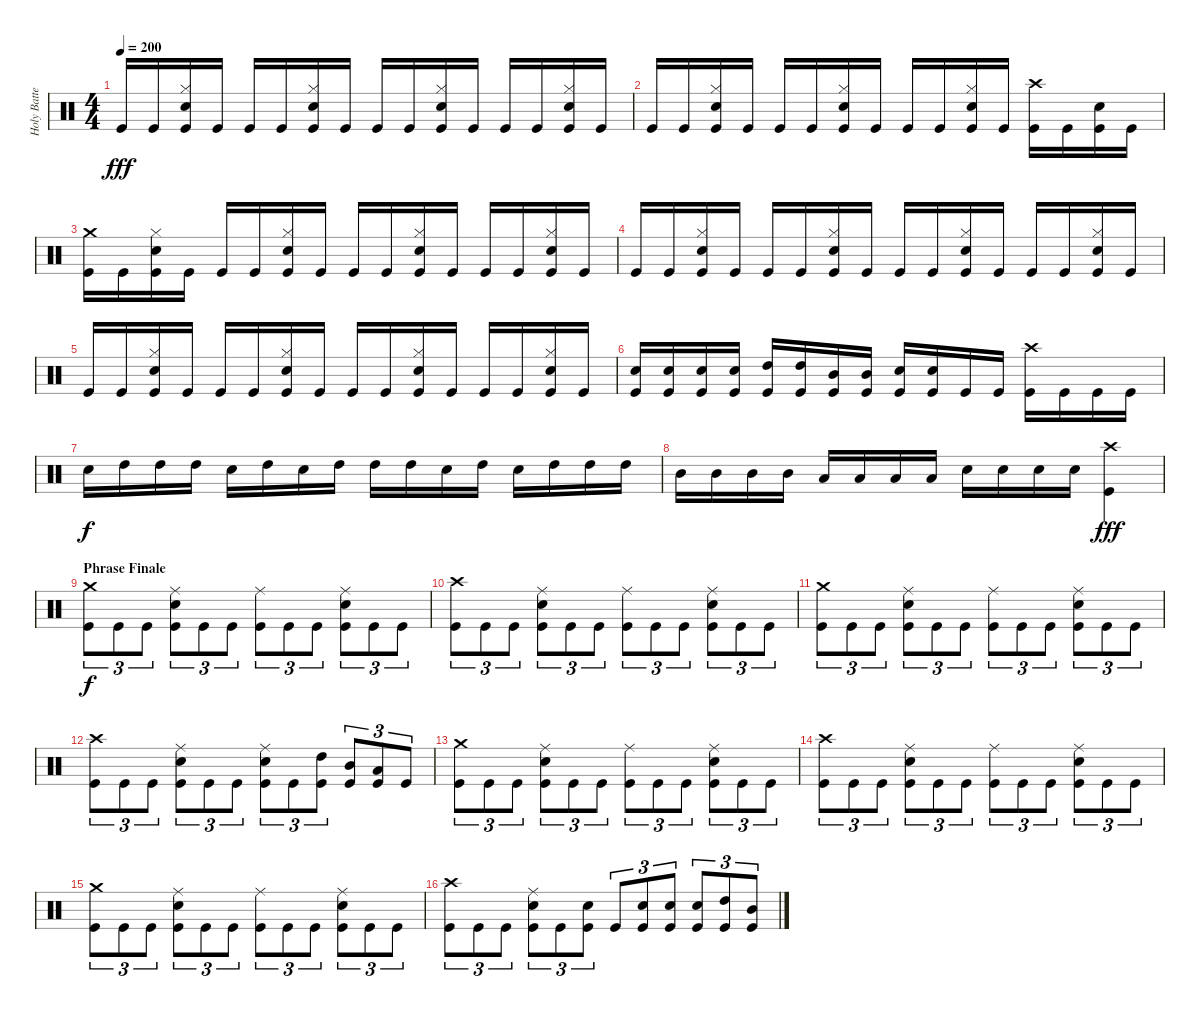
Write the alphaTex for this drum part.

\track ("Holy Batteur" "Holy Batte") {instrument percussion}
\staff {score}
\articulation defaults
\ts (4 4)
\tempo 200
\clef neutral
\ks c "Kick (hit)".16{dy fff} "Kick (hit)".16
("Hi-Hat (closed)" "Electric Snare (hit)" "Kick (hit)").16 "Kick (hit)".16 "Kick (hit)".16 "Kick (hit)".16 ("Hi-Hat (closed)" "Electric Snare (hit)" "Kick (hit)").16 "Kick (hit)".16 "Kick (hit)".16 "Kick (hit)".16 ("Hi-Hat (closed)" "Electric Snare (hit)" "Kick (hit)").16 "Kick (hit)".16 "Kick (hit)".16 "Kick (hit)".16 ("Hi-Hat (closed)" "Electric Snare (hit)" "Kick (hit)").16 "Kick (hit)".16 |
"Kick (hit)".16 "Kick (hit)".16 ("Hi-Hat (closed)" "Electric Snare (hit)" "Kick (hit)").16 "Kick (hit)".16 "Kick (hit)".16 "Kick (hit)".16 ("Hi-Hat (closed)" "Electric Snare (hit)" "Kick (hit)").16 "Kick (hit)".16 "Kick (hit)".16 "Kick (hit)".16 ("Hi-Hat (closed)" "Electric Snare (hit)" "Kick (hit)").16 "Kick (hit)".16 ("Crash high (hit)" "Kick (hit)").16 "Kick (hit)".16 ("Electric Snare (hit)" "Kick (hit)").16 "Kick (hit)".16 |
("Crash medium (hit)" "Kick (hit)").16 "Kick (hit)".16 ("Hi-Hat (closed)" "Electric Snare (hit)" "Kick (hit)").16 "Kick (hit)".16 "Kick (hit)".16 "Kick (hit)".16 ("Hi-Hat (closed)" "Electric Snare (hit)" "Kick (hit)").16 "Kick (hit)".16 "Kick (hit)".16 "Kick (hit)".16 ("Hi-Hat (closed)" "Electric Snare (hit)" "Kick (hit)").16 "Kick (hit)".16 "Kick (hit)".16 "Kick (hit)".16 ("Hi-Hat (closed)" "Electric Snare (hit)" "Kick (hit)").16 "Kick (hit)".16 |
"Kick (hit)".16 "Kick (hit)".16 ("Hi-Hat (closed)" "Electric Snare (hit)" "Kick (hit)").16 "Kick (hit)".16 "Kick (hit)".16 "Kick (hit)".16 ("Hi-Hat (closed)" "Electric Snare (hit)" "Kick (hit)").16 "Kick (hit)".16 "Kick (hit)".16 "Kick (hit)".16 ("Hi-Hat (closed)" "Electric Snare (hit)" "Kick (hit)").16 "Kick (hit)".16 "Kick (hit)".16 "Kick (hit)".16 ("Hi-Hat (closed)" "Electric Snare (hit)" "Kick (hit)").16 "Kick (hit)".16 |
"Kick (hit)".16 "Kick (hit)".16 ("Hi-Hat (closed)" "Electric Snare (hit)" "Kick (hit)").16 "Kick (hit)".16 "Kick (hit)".16 "Kick (hit)".16 ("Hi-Hat (closed)" "Electric Snare (hit)" "Kick (hit)").16 "Kick (hit)".16 "Kick (hit)".16 "Kick (hit)".16 ("Hi-Hat (closed)" "Electric Snare (hit)" "Kick (hit)").16 "Kick (hit)".16 "Kick (hit)".16 "Kick (hit)".16 ("Hi-Hat (closed)" "Electric Snare (hit)" "Kick (hit)").16 "Kick (hit)".16 |
("Electric Snare (hit)" "Kick (hit)").16 ("Electric Snare (hit)" "Kick (hit)").16 ("Electric Snare (hit)" "Kick (hit)").16 ("Electric Snare (hit)" "Kick (hit)").16 ("High Tom (hit)" "Kick (hit)").16 ("High Tom (hit)" "Kick (hit)").16 ("Mid Tom (hit)" "Kick (hit)").16 ("Mid Tom (hit)" "Kick (hit)").16 ("Electric Snare (hit)" "Kick (hit)").16 ("Electric Snare (hit)" "Kick (hit)").16 "Kick (hit)".16 "Kick (hit)".16 ("Crash high (hit)" "Kick (hit)").16 "Kick (hit)".16 "Kick (hit)".16 "Kick (hit)".16 |
"Electric Snare (hit)".16{dy f} "High Tom (hit)".16 "High Tom (hit)".16 "High Tom (hit)".16 "Electric Snare (hit)".16 "High Tom (hit)".16 "Electric Snare (hit)".16 "High Tom (hit)".16 "High Tom (hit)".16 "High Tom (hit)".16 "Electric Snare (hit)".16 "High Tom (hit)".16 "Electric Snare (hit)".16 "High Tom (hit)".16 "High Tom (hit)".16 "High Tom (hit)".16 |
"Mid Tom (hit)".16 "Mid Tom (hit)".16 "Mid Tom (hit)".16 "Mid Tom (hit)".16 "Low Tom (hit)".16 "Low Tom (hit)".16 "Low Tom (hit)".16 "Low Tom (hit)".16 "Electric Snare (hit)".16 "Electric Snare (hit)".16 "Electric Snare (hit)".16 "Electric Snare (hit)".16 ("Crash high (hit)" "Kick (hit)").4{dy fff} |
\section ("" "Phrase Finale")
("Crash medium (hit)" "Kick (hit)").8{tu (3 2) dy f} "Kick (hit)".8{tu (3 2)} "Kick (hit)".8{tu (3 2)} ("Ride (middle)" "Electric Snare (hit)" "Kick (hit)").8{tu (3 2)} "Kick (hit)".8{tu (3 2)} "Kick (hit)".8{tu (3 2)} ("Ride (middle)" "Kick (hit)").8{tu (3 2)} "Kick (hit)".8{tu (3 2)} "Kick (hit)".8{tu (3 2)} ("Ride (middle)" "Electric Snare (hit)" "Kick (hit)").8{tu (3 2)} "Kick (hit)".8{tu (3 2)} "Kick (hit)".8{tu (3 2)} |
("Crash high (hit)" "Kick (hit)").8{tu (3 2)} "Kick (hit)".8{tu (3 2)} "Kick (hit)".8{tu (3 2)} ("Ride (middle)" "Electric Snare (hit)" "Kick (hit)").8{tu (3 2)} "Kick (hit)".8{tu (3 2)} "Kick (hit)".8{tu (3 2)} ("Ride (middle)" "Kick (hit)").8{tu (3 2)} "Kick (hit)".8{tu (3 2)} "Kick (hit)".8{tu (3 2)} ("Ride (middle)" "Electric Snare (hit)" "Kick (hit)").8{tu (3 2)} "Kick (hit)".8{tu (3 2)} "Kick (hit)".8{tu (3 2)} |
("Crash medium (hit)" "Kick (hit)").8{tu (3 2)} "Kick (hit)".8{tu (3 2)} "Kick (hit)".8{tu (3 2)} ("Ride (middle)" "Electric Snare (hit)" "Kick (hit)").8{tu (3 2)} "Kick (hit)".8{tu (3 2)} "Kick (hit)".8{tu (3 2)} ("Ride (middle)" "Kick (hit)").8{tu (3 2)} "Kick (hit)".8{tu (3 2)} "Kick (hit)".8{tu (3 2)} ("Ride (middle)" "Electric Snare (hit)" "Kick (hit)").8{tu (3 2)} "Kick (hit)".8{tu (3 2)} "Kick (hit)".8{tu (3 2)} |
("Crash high (hit)" "Kick (hit)").8{tu (3 2)} "Kick (hit)".8{tu (3 2)} "Kick (hit)".8{tu (3 2)} ("Ride (middle)" "Electric Snare (hit)" "Kick (hit)").8{tu (3 2)} "Kick (hit)".8{tu (3 2)} "Kick (hit)".8{tu (3 2)} ("Ride (middle)" "Electric Snare (hit)" "Kick (hit)").8{tu (3 2)} "Kick (hit)".8{tu (3 2)} ("High Tom (hit)" "Kick (hit)").8{tu (3 2)} ("Mid Tom (hit)" "Kick (hit)").8{tu (3 2)} ("Low Tom (hit)" "Kick (hit)").8{tu (3 2)} "Kick (hit)".8{tu (3 2)} |
("Crash medium (hit)" "Kick (hit)").8{tu (3 2)} "Kick (hit)".8{tu (3 2)} "Kick (hit)".8{tu (3 2)} ("Ride (middle)" "Electric Snare (hit)" "Kick (hit)").8{tu (3 2)} "Kick (hit)".8{tu (3 2)} "Kick (hit)".8{tu (3 2)} ("Ride (middle)" "Kick (hit)").8{tu (3 2)} "Kick (hit)".8{tu (3 2)} "Kick (hit)".8{tu (3 2)} ("Ride (middle)" "Electric Snare (hit)" "Kick (hit)").8{tu (3 2)} "Kick (hit)".8{tu (3 2)} "Kick (hit)".8{tu (3 2)} |
("Crash high (hit)" "Kick (hit)").8{tu (3 2)} "Kick (hit)".8{tu (3 2)} "Kick (hit)".8{tu (3 2)} ("Ride (middle)" "Electric Snare (hit)" "Kick (hit)").8{tu (3 2)} "Kick (hit)".8{tu (3 2)} "Kick (hit)".8{tu (3 2)} ("Ride (middle)" "Kick (hit)").8{tu (3 2)} "Kick (hit)".8{tu (3 2)} "Kick (hit)".8{tu (3 2)} ("Ride (middle)" "Electric Snare (hit)" "Kick (hit)").8{tu (3 2)} "Kick (hit)".8{tu (3 2)} "Kick (hit)".8{tu (3 2)} |
("Crash medium (hit)" "Kick (hit)").8{tu (3 2)} "Kick (hit)".8{tu (3 2)} "Kick (hit)".8{tu (3 2)} ("Ride (middle)" "Electric Snare (hit)" "Kick (hit)").8{tu (3 2)} "Kick (hit)".8{tu (3 2)} "Kick (hit)".8{tu (3 2)} ("Ride (middle)" "Kick (hit)").8{tu (3 2)} "Kick (hit)".8{tu (3 2)} "Kick (hit)".8{tu (3 2)} ("Ride (middle)" "Electric Snare (hit)" "Kick (hit)").8{tu (3 2)} "Kick (hit)".8{tu (3 2)} "Kick (hit)".8{tu (3 2)} |
("Crash high (hit)" "Kick (hit)").8{tu (3 2)} "Kick (hit)".8{tu (3 2)} "Kick (hit)".8{tu (3 2)} ("Ride (middle)" "Electric Snare (hit)" "Kick (hit)").8{tu (3 2)} "Kick (hit)".8{tu (3 2)} ("Electric Snare (hit)" "Kick (hit)").8{tu (3 2)} "Kick (hit)".8{tu (3 2)} ("Electric Snare (hit)" "Kick (hit)").8{tu (3 2)} ("Electric Snare (hit)" "Kick (hit)").8{tu (3 2)} ("Electric Snare (hit)" "Kick (hit)").8{tu (3 2)} ("High Tom (hit)" "Kick (hit)").8{tu (3 2)} ("Mid Tom (hit)" "Kick (hit)").8{tu (3 2)}
